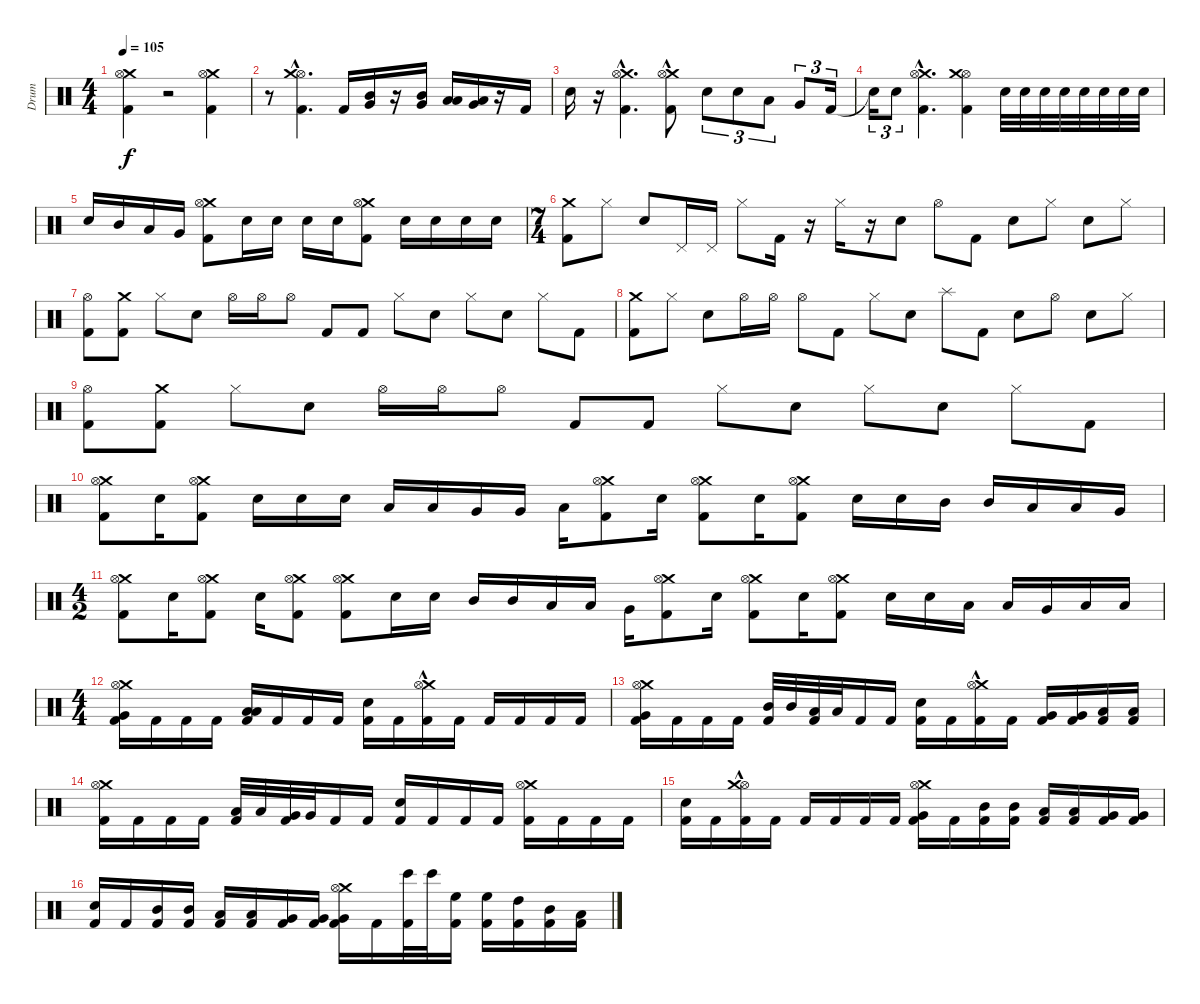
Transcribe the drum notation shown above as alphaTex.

\track ("Drum" "Drum") {instrument percussion}
\staff {score}
\articulation defaults
\ts (4 4)
\tempo 105
\clef neutral
\ks c
("Crash medium (hit)" "Hi-Hat (open)" "Kick (hit) 2").4{dy f} r.2 ("Crash medium (hit)" "Hi-Hat (open)" "Kick (hit) 2").4 |
r.8 ("Kick (hit) 2"{hac} "Hi-Hat (open)"{hac} "Crash medium (hit)"{hac}).4{d} "Kick (hit) 2".16 ("Very Low Tom (hit)" "Mid Tom (hit)").16 r.16 ("Very Low Tom (hit)" "Mid Tom (hit)").16 ("Low Floor Tom (hit)" "Low Tom (hit)").16 ("Low Floor Tom (hit)" "Very Low Tom (hit)").16 r.16 "Kick (hit) 2".16 |
"Electric Snare (hit)".16 r.16 ("Crash medium (hit)"{hac} "Hi-Hat (open)"{hac} "Kick (hit) 2"{hac}).4{d} ("Crash medium (hit)"{hac} "Hi-Hat (open)"{hac} "Kick (hit) 2"{hac}).8 "Electric Snare (hit)".8{tu (3 2)} "Electric Snare (hit)".8{tu (3 2)} "Low Tom (hit)".8{tu (3 2)} "Very Low Tom (hit)".8{tu (3 2)} "Kick (hit) 2".16{tu (3 2)} |
"Snare (hit)"{t}.16{tu (3 2)} "Electric Snare (hit)".8{tu (3 2)} ("Crash medium (hit)"{hac} "Hi-Hat (open)"{hac} "Kick (hit) 2"{hac}).4{d} ("Kick (hit) 2" "Hi-Hat (open)" "Crash medium (hit)").4 "Electric Snare (hit)".32 "Electric Snare (hit)".32 "Electric Snare (hit)".32 "Electric Snare (hit)".32 "Electric Snare (hit)".32 "Electric Snare (hit)".32 "Electric Snare (hit)".32 "Electric Snare (hit)".32 |
"Electric Snare (hit)".16 "Mid Tom (hit)".16 "Low Tom (hit)".16 "Very Low Tom (hit)".16 ("Crash medium (hit)" "Hi-Hat (open)" "Kick (hit) 2").8 "Electric Snare (hit)".16 "Electric Snare (hit)".16 "Electric Snare (hit)".16 "Electric Snare (hit)".16 ("Crash medium (hit)" "Hi-Hat (open)" "Kick (hit) 2").8 "Electric Snare (hit)".16 "Electric Snare (hit)".16 "Electric Snare (hit)".16 "Electric Snare (hit)".16 |
\ts (7 4)
("Crash medium (hit)" "Kick (hit) 2").8 "Hi-Hat (closed)".8 "Electric Snare (hit)".8 "Pedal Hi-Hat (hit)".16 "Pedal Hi-Hat (hit)".16 "Hi-Hat (closed)".8 "Kick (hit) 2".16 r.16 "Hi-Hat (closed)".16 r.16 "Electric Snare (hit)".8 "Hi-Hat (open)".8 "Kick (hit) 2".8 "Electric Snare (hit)".8 "Hi-Hat (closed)".8 "Electric Snare (hit)".8 "Hi-Hat (closed)".8 |
("Hi-Hat (open)" "Kick (hit) 2").8 ("Kick (hit) 2" "Crash medium (hit)").8 "Hi-Hat (closed)".8 "Electric Snare (hit)".8 "Hi-Hat (open)".16 "Hi-Hat (open)".16 "Hi-Hat (open)".8 "Kick (hit) 2".8 "Kick (hit) 2".8 "Hi-Hat (closed)".8 "Electric Snare (hit)".8 "Hi-Hat (closed)".8 "Electric Snare (hit)".8 "Hi-Hat (closed)".8 "Kick (hit) 2".8 |
("Kick (hit) 2" "Crash medium (hit)").8 "Hi-Hat (closed)".8 "Electric Snare (hit)".8 "Hi-Hat (open)".16 "Hi-Hat (open)".16 "Hi-Hat (open)".8 "Kick (hit) 2".8 "Hi-Hat (closed)".8 "Electric Snare (hit)".8 "Splash (hit)".8 "Kick (hit) 2".8 "Electric Snare (hit)".8 "Hi-Hat (open)".8 "Electric Snare (hit)".8 "Hi-Hat (closed)".8 |
("Hi-Hat (open)" "Kick (hit) 2").8 ("Kick (hit) 2" "Crash medium (hit)").8 "Hi-Hat (closed)".8 "Electric Snare (hit)".8 "Hi-Hat (open)".16 "Hi-Hat (open)".16 "Hi-Hat (open)".8 "Kick (hit) 2".8 "Kick (hit) 2".8 "Hi-Hat (closed)".8 "Electric Snare (hit)".8 "Hi-Hat (closed)".8 "Electric Snare (hit)".8 "Hi-Hat (closed)".8 "Kick (hit) 2".8 |
("Crash medium (hit)" "Hi-Hat (open)" "Kick (hit) 2").8 "Electric Snare (hit)".16 ("Crash medium (hit)" "Hi-Hat (open)" "Kick (hit) 2").8 "Electric Snare (hit)".16 "Electric Snare (hit)".16 "Electric Snare (hit)".16 "Low Tom (hit)".16 "Low Tom (hit)".16 "Very Low Tom (hit)".16 "Very Low Tom (hit)".16 "Low Floor Tom (hit)".16 ("Crash medium (hit)" "Hi-Hat (open)" "Kick (hit) 2").8 "Electric Snare (hit)".16 ("Crash medium (hit)" "Hi-Hat (open)" "Kick (hit) 2").8 "Electric Snare (hit)".16 ("Crash medium (hit)" "Hi-Hat (open)" "Kick (hit) 2").8 "Electric Snare (hit)".16 "Electric Snare (hit)".16 "Mid Tom (hit)".16 "Mid Tom (hit)".16 "Low Tom (hit)".16 "Low Tom (hit)".16 "Very Low Tom (hit)".16 |
\ts (4 2)
("Crash medium (hit)" "Hi-Hat (open)" "Kick (hit) 2").8 "Electric Snare (hit)".16 ("Crash medium (hit)" "Hi-Hat (open)" "Kick (hit) 2").8 "Electric Snare (hit)".16 ("Crash medium (hit)" "Hi-Hat (open)" "Kick (hit) 2").8 ("Crash medium (hit)" "Hi-Hat (open)" "Kick (hit) 2").8 "Electric Snare (hit)".16 "Electric Snare (hit)".16 "Mid Tom (hit)".16 "Mid Tom (hit)".16 "Low Tom (hit)".16 "Low Tom (hit)".16 "Very Low Tom (hit)".16 ("Crash medium (hit)" "Hi-Hat (open)" "Kick (hit) 2").8 "Electric Snare (hit)".16 ("Crash medium (hit)" "Hi-Hat (open)" "Kick (hit) 2").8 "Electric Snare (hit)".16 ("Crash medium (hit)" "Hi-Hat (open)" "Kick (hit) 2").8 "Electric Snare (hit)".16 "Electric Snare (hit)".16 "Low Tom (hit)".16 "Low Tom (hit)".16 "Very Low Tom (hit)".16 "Low Floor Tom (hit)".16 "Low Floor Tom (hit)".16 |
\ts (4 4)
("Very Low Tom (hit)" "Kick (hit) 2" "Crash medium (hit)" "Hi-Hat (open)").16 "Kick (hit) 2".16 "Kick (hit) 2".16 "Kick (hit) 2".16 ("Low Floor Tom (hit)" "Low Tom (hit)" "Kick (hit) 2").16 "Kick (hit) 2".16 "Kick (hit) 2".16 "Kick (hit) 2".16 ("Electric Snare (hit)" "Kick (hit) 2").16 "Kick (hit) 2".16 ("Kick (hit) 2" "Crash medium (hit)"{hac} "Hi-Hat (open)"{hac}).16 "Kick (hit) 2".16 "Kick (hit) 2".16 "Kick (hit) 2".16 "Kick (hit) 2".16 "Kick (hit) 2".16 |
("Very Low Tom (hit)" "Kick (hit) 2" "Crash medium (hit)" "Hi-Hat (open)").16 "Kick (hit) 2".16 "Kick (hit) 2".16 "Kick (hit) 2".16 ("Mid Tom (hit)" "Kick (hit) 2").32 "Mid Tom (hit)".32 ("Low Tom (hit)" "Kick (hit) 2").32 "Low Tom (hit)".32 "Kick (hit) 2".16 "Kick (hit) 2".16 ("Electric Snare (hit)" "Kick (hit) 2").16 "Kick (hit) 2".16 ("Kick (hit) 2" "Crash medium (hit)"{hac} "Hi-Hat (open)"{hac}).16 "Kick (hit) 2".16 ("Very Low Tom (hit)" "Kick (hit) 2").16 ("Very Low Tom (hit)" "Kick (hit) 2").16 ("Low Floor Tom (hit)" "Kick (hit) 2").16 ("Low Floor Tom (hit)" "Kick (hit) 2").16 |
("Kick (hit) 2" "Crash medium (hit)" "Hi-Hat (open)").16 "Kick (hit) 2".16 "Kick (hit) 2".16 "Kick (hit) 2".16 ("Low Tom (hit)" "Kick (hit) 2").32 "Low Tom (hit)".32 ("Very Low Tom (hit)" "Kick (hit) 2").32 "Very Low Tom (hit)".32 "Kick (hit) 2".16 "Kick (hit) 2".16 ("Electric Snare (hit)" "Kick (hit) 2").16 "Kick (hit) 2".16 "Kick (hit) 2".16 "Kick (hit) 2".16 ("Kick (hit) 2" "Crash medium (hit)" "Hi-Hat (open)").16 "Kick (hit) 2".16 "Kick (hit) 2".16 "Kick (hit) 2".16 |
("Electric Snare (hit)" "Kick (hit) 2").16 "Kick (hit) 2".16 ("Kick (hit) 2" "Hi-Hat (open)"{hac} "Crash medium (hit)"{hac}).16 "Kick (hit) 2".16 "Kick (hit) 2".16 "Kick (hit) 2".16 "Kick (hit) 2".16 "Kick (hit) 2".16 ("Very Low Tom (hit)" "Kick (hit) 2" "Crash medium (hit)" "Hi-Hat (open)").16 "Kick (hit) 2".16 ("Mid Tom (hit)" "Kick (hit) 2").16 ("Mid Tom (hit)" "Kick (hit) 2").16 ("Low Tom (hit)" "Kick (hit) 2").16 ("Low Tom (hit)" "Kick (hit) 2").16 ("Very Low Tom (hit)" "Kick (hit) 2").16 ("Very Low Tom (hit)" "Kick (hit) 2").16 |
("Electric Snare (hit)" "Kick (hit) 2").16 "Kick (hit) 2".16 ("Mid Tom (hit)" "Kick (hit) 2").16 ("Mid Tom (hit)" "Kick (hit) 2").16 ("Low Tom (hit)" "Kick (hit) 2").16 ("Low Tom (hit)" "Kick (hit) 2").16 ("Very Low Tom (hit)" "Kick (hit) 2").16 ("Very Low Tom (hit)" "Kick (hit) 2").16 ("Very Low Tom (hit)" "Kick (hit) 2" "Crash medium (hit)" "Hi-Hat (open)").16 "Kick (hit) 2".16 ("Bongo High (hit)" "Kick (hit) 2").32 "Bongo High (hit)".32 ("High Floor Tom (hit)" "Kick (hit) 2").16 ("High Floor Tom (hit)" "Kick (hit) 2").16 ("High Tom (hit)" "Kick (hit) 2").16 ("Mid Tom (hit)" "Kick (hit) 2").16 ("Low Tom (hit)" "Kick (hit) 2").16
